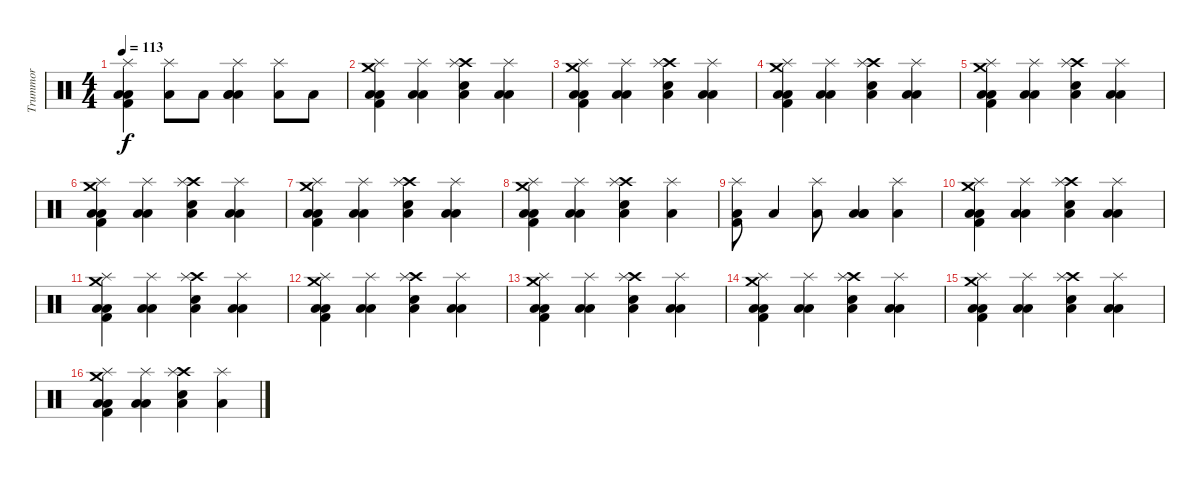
\track ("Trummor" "Trummor") {instrument percussion}
\staff {score}
\articulation defaults
\ts (4 4)
\tempo 113
\clef neutral
\ks c
("Splash (hit)" "Low Floor Tom (hit)" "Low Floor Tom (hit)" "Kick (hit) 2").4{dy f} ("Splash (hit)" "Low Floor Tom (hit)").8 "Low Floor Tom (hit)".8 ("Splash (hit)" "Low Floor Tom (hit)" "Low Floor Tom (hit)" "Low Tom (hit)").4 ("Splash (hit)" "Low Floor Tom (hit)").8 "Low Floor Tom (hit)".8 |
("Crash medium (hit)" "Splash (hit)" "Low Floor Tom (hit)" "Low Floor Tom (hit)" "Kick (hit) 2").4 ("Splash (hit)" "Low Floor Tom (hit)" "Low Floor Tom (hit)").4 ("Crash high (hit)" "Splash (hit)" "Low Floor Tom (hit)" "Snare (hit) 2").4 ("Splash (hit)" "Low Floor Tom (hit)" "Low Floor Tom (hit)").4 |
("Crash medium (hit)" "Splash (hit)" "Low Floor Tom (hit)" "Low Floor Tom (hit)" "Kick (hit) 2").4 ("Splash (hit)" "Low Floor Tom (hit)" "Low Floor Tom (hit)").4 ("Crash high (hit)" "Splash (hit)" "Low Floor Tom (hit)" "Snare (hit) 2").4 ("Splash (hit)" "Low Floor Tom (hit)" "Low Floor Tom (hit)").4 |
("Crash medium (hit)" "Splash (hit)" "Low Floor Tom (hit)" "Low Floor Tom (hit)" "Kick (hit) 2").4 ("Splash (hit)" "Low Floor Tom (hit)" "Low Floor Tom (hit)").4 ("Crash high (hit)" "Splash (hit)" "Low Floor Tom (hit)" "Snare (hit) 2").4 ("Splash (hit)" "Low Floor Tom (hit)" "Low Floor Tom (hit)").4 |
("Crash medium (hit)" "Splash (hit)" "Low Floor Tom (hit)" "Low Floor Tom (hit)" "Kick (hit) 2").4 ("Splash (hit)" "Low Floor Tom (hit)" "Low Floor Tom (hit)").4 ("Crash high (hit)" "Splash (hit)" "Low Floor Tom (hit)" "Snare (hit) 2").4 ("Splash (hit)" "Low Floor Tom (hit)" "Low Floor Tom (hit)").4 |
("Crash medium (hit)" "Splash (hit)" "Low Floor Tom (hit)" "Low Floor Tom (hit)" "Kick (hit) 2").4 ("Splash (hit)" "Low Floor Tom (hit)" "Low Floor Tom (hit)").4 ("Crash high (hit)" "Splash (hit)" "Low Floor Tom (hit)" "Snare (hit) 2").4 ("Splash (hit)" "Low Floor Tom (hit)" "Low Floor Tom (hit)").4 |
("Crash medium (hit)" "Splash (hit)" "Low Floor Tom (hit)" "Low Floor Tom (hit)" "Kick (hit) 2").4 ("Splash (hit)" "Low Floor Tom (hit)" "Low Floor Tom (hit)").4 ("Crash high (hit)" "Splash (hit)" "Low Floor Tom (hit)" "Snare (hit) 2").4 ("Splash (hit)" "Low Floor Tom (hit)" "Low Floor Tom (hit)").4 |
("Crash medium (hit)" "Splash (hit)" "Low Floor Tom (hit)" "Low Floor Tom (hit)" "Kick (hit) 2").4 ("Splash (hit)" "Low Floor Tom (hit)" "Low Floor Tom (hit)").4 ("Crash high (hit)" "Splash (hit)" "Low Floor Tom (hit)" "Snare (hit) 2").4 ("Splash (hit)" "Low Floor Tom (hit)").4 |
("Splash (hit)" "Low Floor Tom (hit)" "Kick (hit) 2").8 "Low Floor Tom (hit)".4 ("Splash (hit)" "Low Floor Tom (hit)").8 ("Low Floor Tom (hit)" "Low Floor Tom (hit)" "Low Tom (hit)").4 ("Splash (hit)" "Low Floor Tom (hit)").4 |
("Crash medium (hit)" "Splash (hit)" "Low Floor Tom (hit)" "Low Floor Tom (hit)" "Kick (hit) 2").4 ("Splash (hit)" "Low Floor Tom (hit)" "Low Floor Tom (hit)").4 ("Crash high (hit)" "Splash (hit)" "Low Floor Tom (hit)" "Snare (hit) 2").4 ("Splash (hit)" "Low Floor Tom (hit)" "Low Floor Tom (hit)").4 |
("Crash medium (hit)" "Splash (hit)" "Low Floor Tom (hit)" "Low Floor Tom (hit)" "Kick (hit) 2").4 ("Splash (hit)" "Low Floor Tom (hit)" "Low Floor Tom (hit)").4 ("Crash high (hit)" "Splash (hit)" "Low Floor Tom (hit)" "Snare (hit) 2").4 ("Splash (hit)" "Low Floor Tom (hit)" "Low Floor Tom (hit)").4 |
("Crash medium (hit)" "Splash (hit)" "Low Floor Tom (hit)" "Low Floor Tom (hit)" "Kick (hit) 2").4 ("Splash (hit)" "Low Floor Tom (hit)" "Low Floor Tom (hit)").4 ("Crash high (hit)" "Splash (hit)" "Low Floor Tom (hit)" "Snare (hit) 2").4 ("Splash (hit)" "Low Floor Tom (hit)" "Low Floor Tom (hit)").4 |
("Crash medium (hit)" "Splash (hit)" "Low Floor Tom (hit)" "Low Floor Tom (hit)" "Kick (hit) 2").4 ("Splash (hit)" "Low Floor Tom (hit)" "Low Floor Tom (hit)").4 ("Crash high (hit)" "Splash (hit)" "Low Floor Tom (hit)" "Snare (hit) 2").4 ("Splash (hit)" "Low Floor Tom (hit)" "Low Floor Tom (hit)").4 |
("Crash medium (hit)" "Splash (hit)" "Low Floor Tom (hit)" "Low Floor Tom (hit)" "Kick (hit) 2").4 ("Splash (hit)" "Low Floor Tom (hit)" "Low Floor Tom (hit)").4 ("Crash high (hit)" "Splash (hit)" "Low Floor Tom (hit)" "Snare (hit) 2").4 ("Splash (hit)" "Low Floor Tom (hit)" "Low Floor Tom (hit)").4 |
("Crash medium (hit)" "Splash (hit)" "Low Floor Tom (hit)" "Low Floor Tom (hit)" "Kick (hit) 2").4 ("Splash (hit)" "Low Floor Tom (hit)" "Low Floor Tom (hit)").4 ("Crash high (hit)" "Splash (hit)" "Low Floor Tom (hit)" "Snare (hit) 2").4 ("Splash (hit)" "Low Floor Tom (hit)" "Low Floor Tom (hit)").4 |
("Crash medium (hit)" "Splash (hit)" "Low Floor Tom (hit)" "Low Floor Tom (hit)" "Kick (hit) 2").4 ("Splash (hit)" "Low Floor Tom (hit)" "Low Floor Tom (hit)").4 ("Crash high (hit)" "Splash (hit)" "Low Floor Tom (hit)" "Snare (hit) 2").4 ("Splash (hit)" "Low Floor Tom (hit)").4
